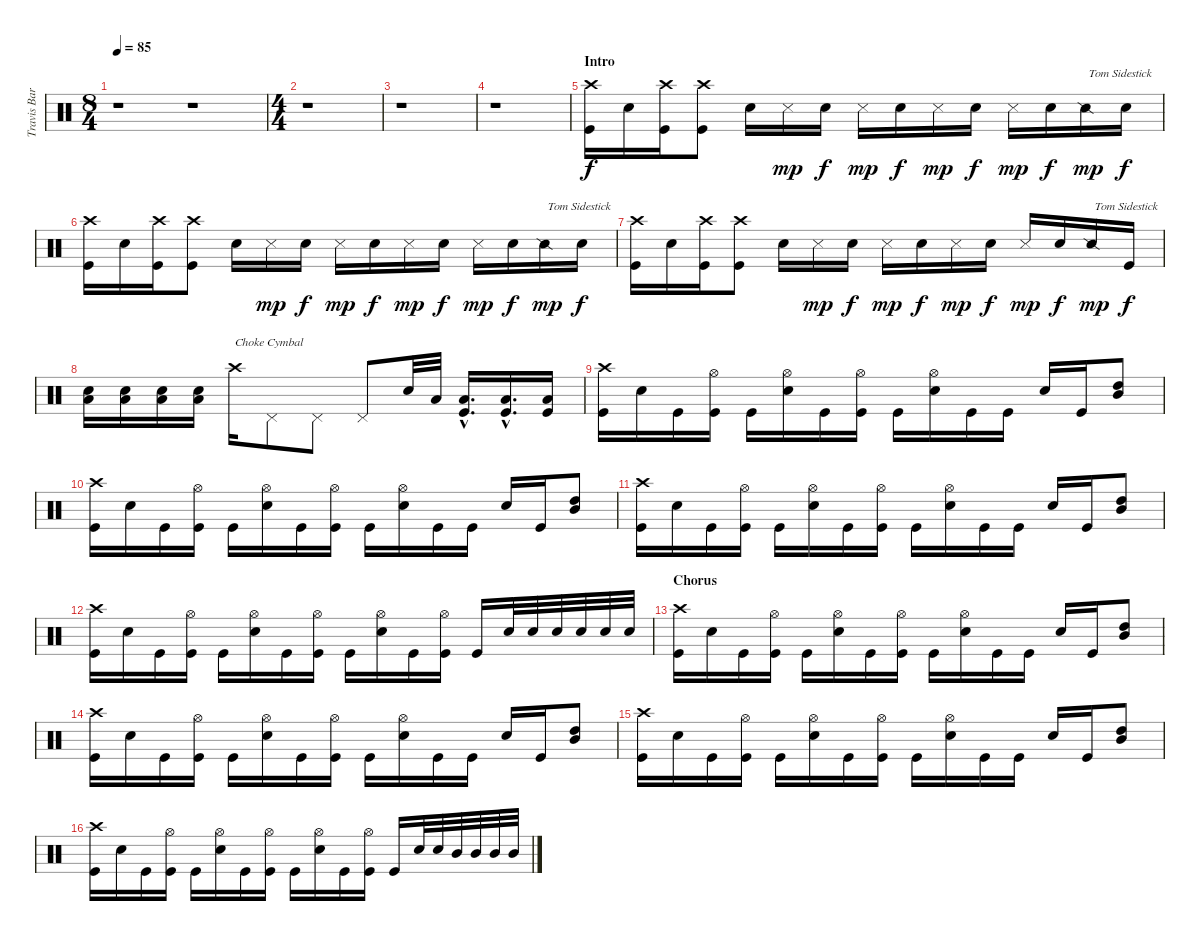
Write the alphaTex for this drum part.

\track ("Travis Barker" "Travis Bar") {instrument percussion}
\staff {score}
\articulation defaults
\ts (8 4)
\tempo 85
\clef neutral
\ks c
r.1{dy f} r.1 |
\ts (4 4)
r.1 |
r.1 |
r.1 |
\section ("" "Intro")
("Crash high (hit)" "Kick (hit)").16 "Electric Snare (hit)".16 ("Crash high (hit)" "Kick (hit)").16 ("Crash high (hit)" "Kick (hit)").8 "Electric Snare (hit)".16 "Snare (side stick) 3".16{dy mp} "Electric Snare (hit)".16{dy f} "Snare (side stick) 3".16{dy mp} "Electric Snare (hit)".16{dy f} "Snare (side stick) 3".16{dy mp} "Electric Snare (hit)".16{dy f} "Snare (side stick) 3".16{dy mp} "Electric Snare (hit)".16{dy f} "Snare (side stick) 2".16{txt "Tom Sidestick" dy mp} "Electric Snare (hit)".16{dy f} |
("Crash high (hit)" "Kick (hit)").16 "Electric Snare (hit)".16 ("Crash high (hit)" "Kick (hit)").16 ("Crash high (hit)" "Kick (hit)").8 "Electric Snare (hit)".16 "Snare (side stick) 3".16{dy mp} "Electric Snare (hit)".16{dy f} "Snare (side stick) 3".16{dy mp} "Electric Snare (hit)".16{dy f} "Snare (side stick) 3".16{dy mp} "Electric Snare (hit)".16{dy f} "Snare (side stick) 3".16{dy mp} "Electric Snare (hit)".16{dy f} "Snare (side stick) 2".16{txt "Tom Sidestick" dy mp} "Electric Snare (hit)".16{dy f} |
("Crash high (hit)" "Kick (hit)").16 "Electric Snare (hit)".16 ("Crash high (hit)" "Kick (hit)").16 ("Crash high (hit)" "Kick (hit)").8 "Electric Snare (hit)".16 "Snare (side stick) 3".16{dy mp} "Electric Snare (hit)".16{dy f} "Snare (side stick) 3".16{dy mp} "Electric Snare (hit)".16{dy f} "Snare (side stick) 3".16{dy mp} "Electric Snare (hit)".16{dy f} "Snare (side stick) 3".16{dy mp} "Electric Snare (hit)".16{dy f} "Snare (side stick) 2".16{txt "Tom Sidestick" dy mp} "Kick (hit)".16{dy f} |
("Low Tom (hit)" "Electric Snare (hit)").16 ("Low Tom (hit)" "Electric Snare (hit)").16 ("Low Tom (hit)" "Electric Snare (hit)").16 ("Low Tom (hit)" "Electric Snare (hit)").16 "Crash high (hit)".16{txt "Choke Cymbal"} "Pedal Hi-Hat (hit)".8 "Pedal Hi-Hat (hit)".8 "Pedal Hi-Hat (hit)".8 "Electric Snare (hit)".32 "Low Tom (hit)".32 ("Low Tom (hit)"{hac} "Kick (hit)"{hac}).16{d} ("Low Tom (hit)"{hac} "Kick (hit)"{hac}).16{d} ("Low Tom (hit)" "Kick (hit)").16 |
("Crash high (hit)" "Kick (hit)").16 "Electric Snare (hit)".16 "Kick (hit)".16 ("Hi-Hat (open)" "Kick (hit)").16 "Kick (hit)".16 ("Hi-Hat (open)" "Electric Snare (hit)").16 "Kick (hit)".16 ("Hi-Hat (open)" "Kick (hit)").16 "Kick (hit)".16 ("Hi-Hat (open)" "Electric Snare (hit)").16 "Kick (hit)".16 "Kick (hit)".16 "Electric Snare (hit)".16 "Kick (hit)".16 ("High Tom (hit)" "Mid Tom (hit)").8 |
("Crash high (hit)" "Kick (hit)").16 "Electric Snare (hit)".16 "Kick (hit)".16 ("Hi-Hat (open)" "Kick (hit)").16 "Kick (hit)".16 ("Hi-Hat (open)" "Electric Snare (hit)").16 "Kick (hit)".16 ("Hi-Hat (open)" "Kick (hit)").16 "Kick (hit)".16 ("Hi-Hat (open)" "Electric Snare (hit)").16 "Kick (hit)".16 "Kick (hit)".16 "Electric Snare (hit)".16 "Kick (hit)".16 ("High Tom (hit)" "Mid Tom (hit)").8 |
("Crash high (hit)" "Kick (hit)").16 "Electric Snare (hit)".16 "Kick (hit)".16 ("Hi-Hat (open)" "Kick (hit)").16 "Kick (hit)".16 ("Hi-Hat (open)" "Electric Snare (hit)").16 "Kick (hit)".16 ("Hi-Hat (open)" "Kick (hit)").16 "Kick (hit)".16 ("Hi-Hat (open)" "Electric Snare (hit)").16 "Kick (hit)".16 "Kick (hit)".16 "Electric Snare (hit)".16 "Kick (hit)".16 ("High Tom (hit)" "Mid Tom (hit)").8 |
("Crash high (hit)" "Kick (hit)").16 "Electric Snare (hit)".16 "Kick (hit)".16 ("Hi-Hat (open)" "Kick (hit)").16 "Kick (hit)".16 ("Hi-Hat (open)" "Electric Snare (hit)").16 "Kick (hit)".16 ("Hi-Hat (open)" "Kick (hit)").16 "Kick (hit)".16 ("Hi-Hat (open)" "Electric Snare (hit)").16 "Kick (hit)".16 ("Hi-Hat (open)" "Kick (hit)").16 "Kick (hit)".16 "Electric Snare (hit)".32 "Electric Snare (hit)".32 "Electric Snare (hit)".32 "Electric Snare (hit)".32 "Electric Snare (hit)".32 "Electric Snare (hit)".32 |
\section ("" "Chorus")
("Crash high (hit)" "Kick (hit)").16 "Electric Snare (hit)".16 "Kick (hit)".16 ("Hi-Hat (open)" "Kick (hit)").16 "Kick (hit)".16 ("Hi-Hat (open)" "Electric Snare (hit)").16 "Kick (hit)".16 ("Hi-Hat (open)" "Kick (hit)").16 "Kick (hit)".16 ("Hi-Hat (open)" "Electric Snare (hit)").16 "Kick (hit)".16 "Kick (hit)".16 "Electric Snare (hit)".16 "Kick (hit)".16 ("High Tom (hit)" "Mid Tom (hit)").8 |
("Crash high (hit)" "Kick (hit)").16 "Electric Snare (hit)".16 "Kick (hit)".16 ("Hi-Hat (open)" "Kick (hit)").16 "Kick (hit)".16 ("Hi-Hat (open)" "Electric Snare (hit)").16 "Kick (hit)".16 ("Hi-Hat (open)" "Kick (hit)").16 "Kick (hit)".16 ("Hi-Hat (open)" "Electric Snare (hit)").16 "Kick (hit)".16 "Kick (hit)".16 "Electric Snare (hit)".16 "Kick (hit)".16 ("High Tom (hit)" "Mid Tom (hit)").8 |
("Crash high (hit)" "Kick (hit)").16 "Electric Snare (hit)".16 "Kick (hit)".16 ("Hi-Hat (open)" "Kick (hit)").16 "Kick (hit)".16 ("Hi-Hat (open)" "Electric Snare (hit)").16 "Kick (hit)".16 ("Hi-Hat (open)" "Kick (hit)").16 "Kick (hit)".16 ("Hi-Hat (open)" "Electric Snare (hit)").16 "Kick (hit)".16 "Kick (hit)".16 "Electric Snare (hit)".16 "Kick (hit)".16 ("High Tom (hit)" "Mid Tom (hit)").8 |
("Crash high (hit)" "Kick (hit)").16 "Electric Snare (hit)".16 "Kick (hit)".16 ("Hi-Hat (open)" "Kick (hit)").16 "Kick (hit)".16 ("Hi-Hat (open)" "Electric Snare (hit)").16 "Kick (hit)".16 ("Hi-Hat (open)" "Kick (hit)").16 "Kick (hit)".16 ("Hi-Hat (open)" "Electric Snare (hit)").16 "Kick (hit)".16 ("Hi-Hat (open)" "Kick (hit)").16 "Kick (hit)".16 "Electric Snare (hit)".32 "Electric Snare (hit)".32 "Mid Tom (hit)".32 "Mid Tom (hit)".32 "Mid Tom (hit)".32 "Mid Tom (hit)".32
